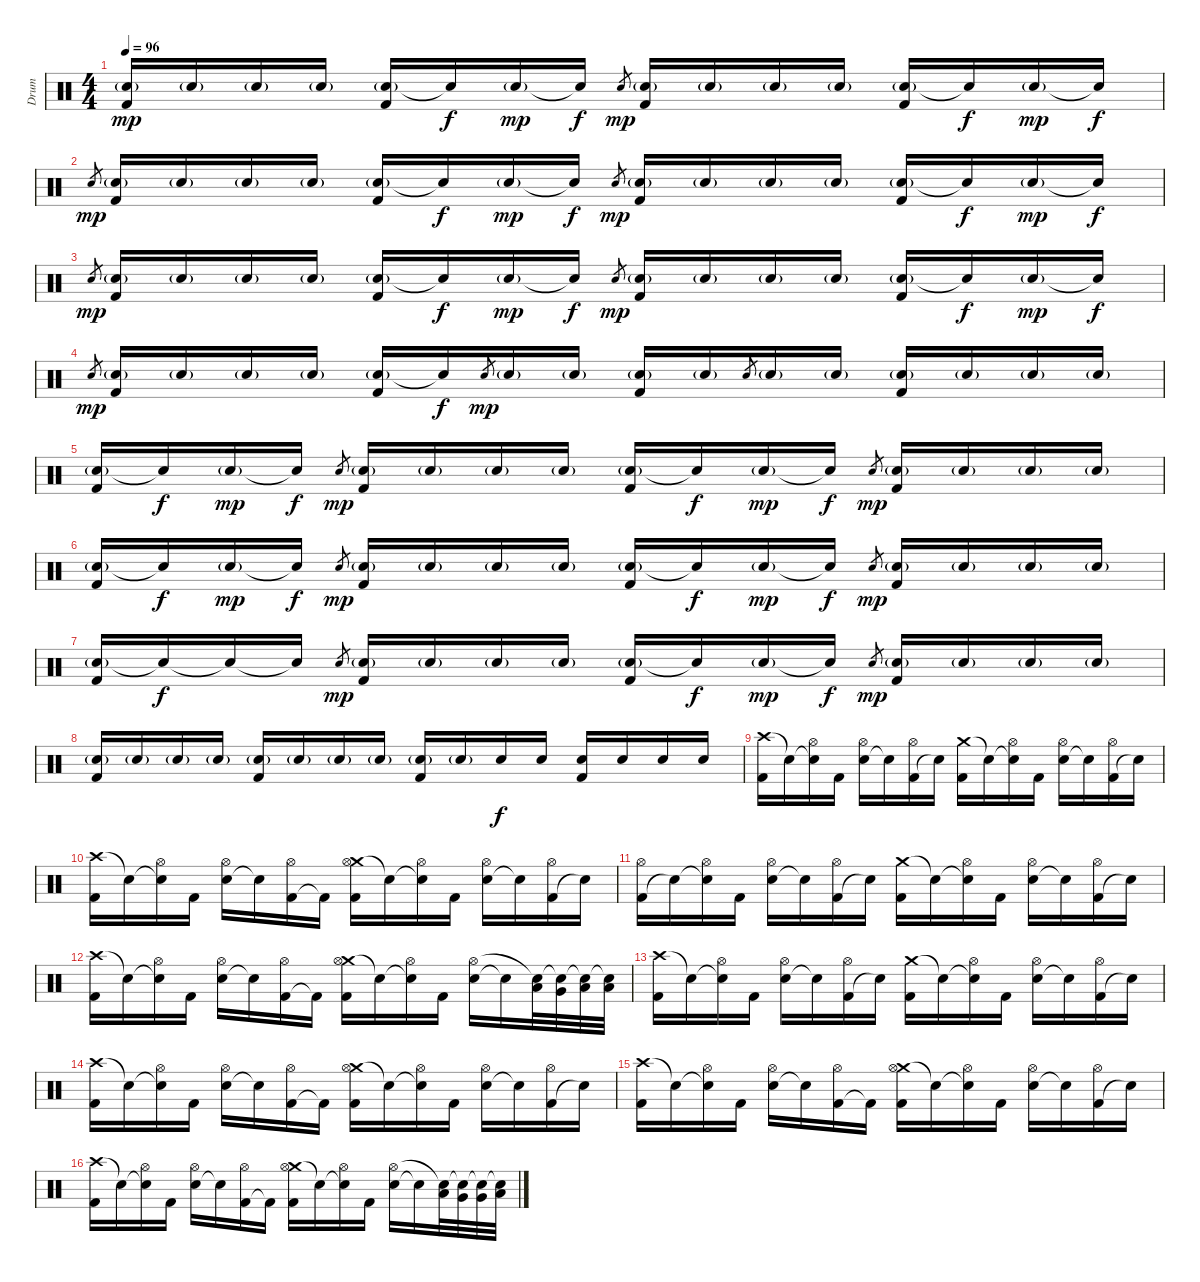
\track ("Drum" "Drum") {instrument percussion}
\staff {score}
\articulation defaults
\ts (4 4)
\tempo 96
\clef neutral
\ks c
("Electric Snare (hit)"{g} "Kick (hit) 2").16{dy mp} "Electric Snare (hit)"{g}.16 "Electric Snare (hit)"{g}.16 "Electric Snare (hit)"{g}.16 ("Electric Snare (hit)"{g} "Kick (hit) 2").16 "Snare (hit)"{t}.16{dy f} "Electric Snare (hit)"{g}.16{dy mp} "Snare (hit)"{t}.16{dy f} "Electric Snare (hit)".8{gr dy mp} ("Electric Snare (hit)"{g} "Kick (hit) 2").16 "Electric Snare (hit)"{g}.16 "Electric Snare (hit)"{g}.16 "Electric Snare (hit)"{g}.16 ("Electric Snare (hit)"{g} "Kick (hit) 2").16 "Snare (hit)"{t}.16{dy f} "Electric Snare (hit)"{g}.16{dy mp} "Snare (hit)"{t}.16{dy f} |
"Electric Snare (hit)".8{gr dy mp} ("Electric Snare (hit)"{g} "Kick (hit) 2").16 "Electric Snare (hit)"{g}.16 "Electric Snare (hit)"{g}.16 "Electric Snare (hit)"{g}.16 ("Electric Snare (hit)"{g} "Kick (hit) 2").16 "Snare (hit)"{t}.16{dy f} "Electric Snare (hit)"{g}.16{dy mp} "Snare (hit)"{t}.16{dy f} "Electric Snare (hit)".8{gr dy mp} ("Electric Snare (hit)"{g} "Kick (hit) 2").16 "Electric Snare (hit)"{g}.16 "Electric Snare (hit)"{g}.16 "Electric Snare (hit)"{g}.16 ("Electric Snare (hit)"{g} "Kick (hit) 2").16 "Snare (hit)"{t}.16{dy f} "Electric Snare (hit)"{g}.16{dy mp} "Snare (hit)"{t}.16{dy f} |
"Electric Snare (hit)".8{gr dy mp} ("Electric Snare (hit)"{g} "Kick (hit) 2").16 "Electric Snare (hit)"{g}.16 "Electric Snare (hit)"{g}.16 "Electric Snare (hit)"{g}.16 ("Electric Snare (hit)"{g} "Kick (hit) 2").16 "Snare (hit)"{t}.16{dy f} "Electric Snare (hit)"{g}.16{dy mp} "Snare (hit)"{t}.16{dy f} "Electric Snare (hit)".8{gr dy mp} ("Electric Snare (hit)"{g} "Kick (hit) 2").16 "Electric Snare (hit)"{g}.16 "Electric Snare (hit)"{g}.16 "Electric Snare (hit)"{g}.16 ("Electric Snare (hit)"{g} "Kick (hit) 2").16 "Electric Snare (hit)"{t}.16{dy f} "Electric Snare (hit)"{g}.16{dy mp} "Snare (hit)"{t}.16{dy f} |
"Electric Snare (hit)".8{gr dy mp} ("Electric Snare (hit)"{g} "Kick (hit) 2").16 "Electric Snare (hit)"{g}.16 "Electric Snare (hit)"{g}.16 "Electric Snare (hit)"{g}.16 ("Electric Snare (hit)"{g} "Kick (hit) 2").16 "Snare (hit)"{t}.16{dy f} "Electric Snare (hit)".8{gr dy mp} "Electric Snare (hit)"{g}.16 "Electric Snare (hit)"{g}.16 ("Electric Snare (hit)"{g} "Kick (hit) 2").16 "Electric Snare (hit)"{g}.16 "Electric Snare (hit)".8{gr} "Electric Snare (hit)"{g}.16 "Electric Snare (hit)"{g}.16 ("Electric Snare (hit)"{g} "Kick (hit) 2").16 "Electric Snare (hit)"{g}.16 "Electric Snare (hit)"{g}.16 "Electric Snare (hit)"{g}.16 |
("Electric Snare (hit)"{g} "Kick (hit) 2").16 "Snare (hit)"{t}.16{dy f} "Electric Snare (hit)"{g}.16{dy mp} "Snare (hit)"{t}.16{dy f} "Electric Snare (hit)".8{gr dy mp} ("Electric Snare (hit)"{g} "Kick (hit) 2").16 "Electric Snare (hit)"{g}.16 "Electric Snare (hit)"{g}.16 "Electric Snare (hit)"{g}.16 ("Electric Snare (hit)"{g} "Kick (hit) 2").16 "Snare (hit)"{t}.16{dy f} "Electric Snare (hit)"{g}.16{dy mp} "Snare (hit)"{t}.16{dy f} "Electric Snare (hit)".8{gr dy mp} ("Electric Snare (hit)"{g} "Kick (hit) 2").16 "Electric Snare (hit)"{g}.16 "Electric Snare (hit)"{g}.16 "Electric Snare (hit)"{g}.16 |
("Electric Snare (hit)"{g} "Kick (hit) 2").16 "Snare (hit)"{t}.16{dy f} "Electric Snare (hit)"{g}.16{dy mp} "Snare (hit)"{t}.16{dy f} "Electric Snare (hit)".8{gr dy mp} ("Electric Snare (hit)"{g} "Kick (hit) 2").16 "Electric Snare (hit)"{g}.16 "Electric Snare (hit)"{g}.16 "Electric Snare (hit)"{g}.16 ("Electric Snare (hit)"{g} "Kick (hit) 2").16 "Snare (hit)"{t}.16{dy f} "Electric Snare (hit)"{g}.16{dy mp} "Snare (hit)"{t}.16{dy f} "Electric Snare (hit)".8{gr dy mp} ("Electric Snare (hit)"{g} "Kick (hit) 2").16 "Electric Snare (hit)"{g}.16 "Electric Snare (hit)"{g}.16 "Electric Snare (hit)"{g}.16 |
("Electric Snare (hit)"{g} "Kick (hit) 2").16 "Snare (hit)"{t}.16{dy f} "Snare (hit)"{t}.16 "Electric Snare (hit)"{t}.16 "Electric Snare (hit)".8{gr dy mp} ("Electric Snare (hit)"{g} "Kick (hit) 2").16 "Electric Snare (hit)"{g}.16 "Electric Snare (hit)"{g}.16 "Electric Snare (hit)"{g}.16 ("Electric Snare (hit)"{g} "Kick (hit) 2").16 "Snare (hit)"{t}.16{dy f} "Electric Snare (hit)"{g}.16{dy mp} "Snare (hit)"{t}.16{dy f} "Electric Snare (hit)".8{gr dy mp} ("Electric Snare (hit)"{g} "Kick (hit) 2").16 "Electric Snare (hit)"{g}.16 "Electric Snare (hit)"{g}.16 "Electric Snare (hit)"{g}.16 |
("Electric Snare (hit)"{g} "Kick (hit) 2").16 "Electric Snare (hit)"{g}.16 "Electric Snare (hit)"{g}.16 "Electric Snare (hit)"{g}.16 ("Electric Snare (hit)"{g} "Kick (hit) 2").16 "Electric Snare (hit)"{g}.16 "Electric Snare (hit)"{g}.16 "Electric Snare (hit)"{g}.16 ("Electric Snare (hit)"{g} "Kick (hit) 2").16 "Electric Snare (hit)"{g}.16 "Electric Snare (hit)".16{dy f} "Electric Snare (hit)".16 ("Electric Snare (hit)" "Kick (hit) 2").16 "Electric Snare (hit)".16 "Electric Snare (hit)".16 "Electric Snare (hit)".16 |
("Crash high (hit)" "Kick (hit) 2").16 "Snare (hit)"{t}.16 ("Snare (hit)"{t} "Hi-Hat (open)").16 "Kick (hit) 2".16 ("Electric Snare (hit)" "Hi-Hat (open)").16 "Snare (hit)"{t}.16 ("Kick (hit) 2" "Hi-Hat (open)").16 "Snare (hit)"{t}.16 ("Crash medium (hit)" "Kick (hit) 2").16 "Snare (hit)"{t}.16 ("Snare (hit)"{t} "Hi-Hat (open)").16 "Kick (hit) 2".16 ("Electric Snare (hit)" "Hi-Hat (open)").16 "Snare (hit)"{t}.16 ("Kick (hit) 2" "Hi-Hat (open)").16 "Snare (hit)"{t}.16 |
("Crash high (hit)" "Kick (hit) 2").16 "Snare (hit)"{t}.16 ("Snare (hit)"{t} "Hi-Hat (open)").16 "Kick (hit) 2".16 ("Electric Snare (hit)" "Hi-Hat (open)").16 "Snare (hit)"{t}.16 ("Kick (hit) 2" "Hi-Hat (open)").16 "Kick (hit) 2"{t}.16 ("Crash medium (hit)" "Kick (hit) 2" "Hi-Hat (open)").16 "Snare (hit)"{t}.16 ("Snare (hit)"{t} "Hi-Hat (open)").16 "Kick (hit) 2".16 ("Electric Snare (hit)" "Hi-Hat (open)").16 "Snare (hit)"{t}.16 ("Kick (hit) 2" "Hi-Hat (open)").16 "Snare (hit)"{t}.16 |
("Kick (hit) 2" "Hi-Hat (open)").16 "Snare (hit)"{t}.16 ("Snare (hit)"{t} "Hi-Hat (open)").16 "Kick (hit) 2".16 ("Electric Snare (hit)" "Hi-Hat (open)").16 "Snare (hit)"{t}.16 ("Kick (hit) 2" "Hi-Hat (open)").16 "Snare (hit)"{t}.16 ("Crash medium (hit)" "Kick (hit) 2").16 "Snare (hit)"{t}.16 ("Snare (hit)"{t} "Hi-Hat (open)").16 "Kick (hit) 2".16 ("Electric Snare (hit)" "Hi-Hat (open)").16 "Snare (hit)"{t}.16 ("Kick (hit) 2" "Hi-Hat (open)").16 "Snare (hit)"{t}.16 |
("Crash high (hit)" "Kick (hit) 2").16 "Snare (hit)"{t}.16 ("Snare (hit)"{t} "Hi-Hat (open)").16 "Kick (hit) 2".16 ("Electric Snare (hit)" "Hi-Hat (open)").16 "Snare (hit)"{t}.16 ("Kick (hit) 2" "Hi-Hat (open)").16 "Kick (hit) 2"{t}.16 ("Crash medium (hit)" "Kick (hit) 2" "Hi-Hat (open)").16 "Snare (hit)"{t}.16 ("Snare (hit)"{t} "Hi-Hat (open)").16 "Kick (hit) 2".16 ("Electric Snare (hit)" "Hi-Hat (open)").16 "Snare (hit)"{t}.16 ("Low Tom (hit)" "Snare (hit)"{t}).32 ("Very Low Tom (hit)" "Snare (hit)"{t}).32 ("Low Floor Tom (hit)" "Snare (hit)"{t}).32 ("Low Floor Tom (hit)" "Snare (hit)"{t}).32 |
("Crash high (hit)" "Kick (hit) 2").16 "Snare (hit)"{t}.16 ("Snare (hit)"{t} "Hi-Hat (open)").16 "Kick (hit) 2".16 ("Electric Snare (hit)" "Hi-Hat (open)").16 "Snare (hit)"{t}.16 ("Kick (hit) 2" "Hi-Hat (open)").16 "Snare (hit)"{t}.16 ("Crash medium (hit)" "Kick (hit) 2").16 "Snare (hit)"{t}.16 ("Snare (hit)"{t} "Hi-Hat (open)").16 "Kick (hit) 2".16 ("Electric Snare (hit)" "Hi-Hat (open)").16 "Snare (hit)"{t}.16 ("Kick (hit) 2" "Hi-Hat (open)").16 "Snare (hit)"{t}.16 |
("Crash high (hit)" "Kick (hit) 2").16 "Snare (hit)"{t}.16 ("Snare (hit)"{t} "Hi-Hat (open)").16 "Kick (hit) 2".16 ("Electric Snare (hit)" "Hi-Hat (open)").16 "Snare (hit)"{t}.16 ("Kick (hit) 2" "Hi-Hat (open)").16 "Kick (hit) 2"{t}.16 ("Crash medium (hit)" "Kick (hit) 2" "Hi-Hat (open)").16 "Snare (hit)"{t}.16 ("Snare (hit)"{t} "Hi-Hat (open)").16 "Kick (hit) 2".16 ("Electric Snare (hit)" "Hi-Hat (open)").16 "Snare (hit)"{t}.16 ("Kick (hit) 2" "Hi-Hat (open)").16 "Snare (hit)"{t}.16 |
("Crash high (hit)" "Kick (hit) 2").16 "Snare (hit)"{t}.16 ("Snare (hit)"{t} "Hi-Hat (open)").16 "Kick (hit) 2".16 ("Electric Snare (hit)" "Hi-Hat (open)").16 "Snare (hit)"{t}.16 ("Kick (hit) 2" "Hi-Hat (open)").16 "Kick (hit) 2"{t}.16 ("Crash medium (hit)" "Kick (hit) 2" "Hi-Hat (open)").16 "Snare (hit)"{t}.16 ("Snare (hit)"{t} "Hi-Hat (open)").16 "Kick (hit) 2".16 ("Electric Snare (hit)" "Hi-Hat (open)").16 "Snare (hit)"{t}.16 ("Kick (hit) 2" "Hi-Hat (open)").16 "Snare (hit)"{t}.16 |
("Crash high (hit)" "Kick (hit) 2").16 "Snare (hit)"{t}.16 ("Snare (hit)"{t} "Hi-Hat (open)").16 "Kick (hit) 2".16 ("Electric Snare (hit)" "Hi-Hat (open)").16 "Snare (hit)"{t}.16 ("Kick (hit) 2" "Hi-Hat (open)").16 "Kick (hit) 2"{t}.16 ("Crash medium (hit)" "Kick (hit) 2" "Hi-Hat (open)").16 "Snare (hit)"{t}.16 ("Snare (hit)"{t} "Hi-Hat (open)").16 "Kick (hit) 2".16 ("Electric Snare (hit)" "Hi-Hat (open)").16 "Snare (hit)"{t}.16 ("Low Tom (hit)" "Snare (hit)"{t}).32 ("Very Low Tom (hit)" "Snare (hit)"{t}).32 ("Very Low Tom (hit)" "Snare (hit)"{t}).32 ("Low Floor Tom (hit)" "Snare (hit)"{t}).32
